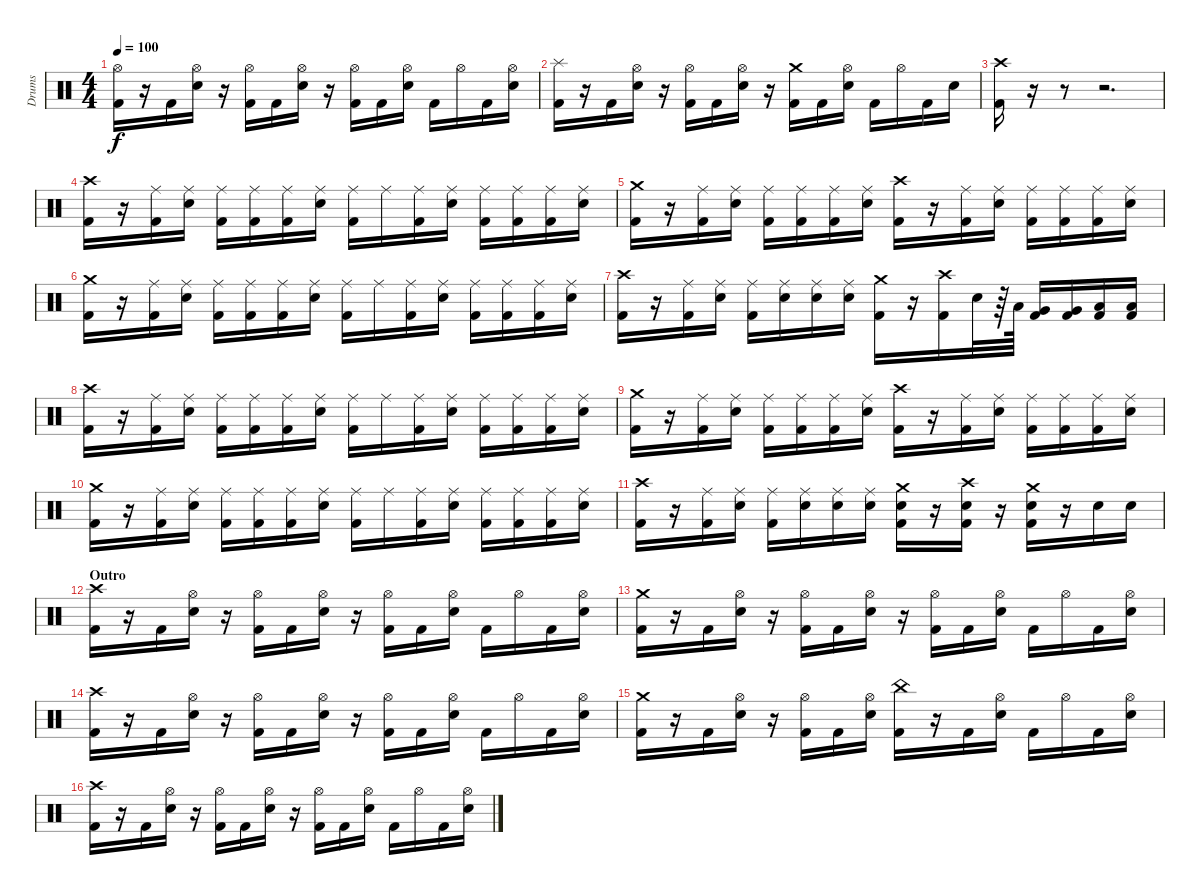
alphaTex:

\track ("Drums" "Drums") {instrument percussion}
\staff {score}
\articulation defaults
\ts (4 4)
\tempo 100
\clef neutral
\ks c
("Hi-Hat (open)" "Kick (hit) 2").16{dy f} r.16 "Kick (hit) 2".16 ("Hi-Hat (open)" "Snare (hit) 2").16 r.16 ("Hi-Hat (open)" "Kick (hit) 2").16 "Kick (hit) 2".16 ("Hi-Hat (open)" "Snare (hit) 2").16 r.16 ("Hi-Hat (open)" "Kick (hit) 2").16 "Kick (hit) 2".16 ("Hi-Hat (open)" "Snare (hit) 2").16 "Kick (hit) 2".16 "Hi-Hat (open)".16 "Kick (hit) 2".16 ("Hi-Hat (open)" "Snare (hit) 2").16 |
("Splash (hit)" "Kick (hit) 2").16 r.16 "Kick (hit) 2".16 ("Hi-Hat (open)" "Snare (hit) 2").16 r.16 ("Hi-Hat (open)" "Kick (hit) 2").16 "Kick (hit) 2".16 ("Hi-Hat (open)" "Snare (hit) 2").16 r.16 ("Crash medium (hit)" "Kick (hit) 2").16 "Kick (hit) 2".16 ("Hi-Hat (open)" "Snare (hit) 2").16 "Kick (hit) 2".16 "Hi-Hat (open)".16 "Kick (hit) 2".16 "Snare (hit) 2".16 |
("Crash high (hit)" "Kick (hit) 2").16 r.16 r.8 r.2{d} |
("Crash high (hit)" "Kick (hit) 2").16 r.16 ("Ride (middle)" "Kick (hit) 2").16 ("Ride (middle)" "Snare (hit) 2").16 ("Ride (middle)" "Kick (hit) 2").16 ("Ride (middle)" "Kick (hit) 2").16 ("Ride (middle)" "Kick (hit) 2").16 ("Ride (middle)" "Snare (hit) 2").16 ("Ride (middle)" "Kick (hit) 2").16 "Ride (middle)".16 ("Ride (middle)" "Kick (hit) 2").16 ("Ride (middle)" "Snare (hit) 2").16 ("Ride (middle)" "Kick (hit) 2").16 ("Ride (middle)" "Kick (hit) 2").16 ("Ride (middle)" "Kick (hit) 2").16 ("Ride (middle)" "Snare (hit) 2").16 |
("Crash medium (hit)" "Kick (hit) 2").16 r.16 ("Ride (middle)" "Kick (hit) 2").16 ("Ride (middle)" "Snare (hit) 2").16 ("Ride (middle)" "Kick (hit) 2").16 ("Ride (middle)" "Kick (hit) 2").16 ("Ride (middle)" "Kick (hit) 2").16 ("Ride (middle)" "Snare (hit) 2").16 ("Crash high (hit)" "Kick (hit) 2").16 r.16 ("Ride (middle)" "Kick (hit) 2").16 ("Ride (middle)" "Snare (hit) 2").16 ("Ride (middle)" "Kick (hit) 2").16 ("Ride (middle)" "Kick (hit) 2").16 ("Ride (middle)" "Kick (hit) 2").16 ("Ride (middle)" "Snare (hit) 2").16 |
("Crash medium (hit)" "Kick (hit) 2").16 r.16 ("Ride (middle)" "Kick (hit) 2").16 ("Ride (middle)" "Snare (hit) 2").16 ("Ride (middle)" "Kick (hit) 2").16 ("Ride (middle)" "Kick (hit) 2").16 ("Ride (middle)" "Kick (hit) 2").16 ("Ride (middle)" "Snare (hit) 2").16 ("Ride (middle)" "Kick (hit) 2").16 "Ride (middle)".16 ("Ride (middle)" "Kick (hit) 2").16 ("Ride (middle)" "Snare (hit) 2").16 ("Ride (middle)" "Kick (hit) 2").16 ("Ride (middle)" "Kick (hit) 2").16 ("Ride (middle)" "Kick (hit) 2").16 ("Ride (middle)" "Snare (hit) 2").16 |
("Crash high (hit)" "Kick (hit) 2").16 r.16 ("Ride (middle)" "Kick (hit) 2").16 ("Ride (middle)" "Snare (hit) 2").16 ("Ride (middle)" "Kick (hit) 2").16 ("Ride (middle)" "Snare (hit) 2").16 ("Ride (middle)" "Snare (hit) 2").16 ("Ride (middle)" "Snare (hit) 2").16 ("Crash medium (hit)" "Kick (hit) 2").16 r.16 ("Crash high (hit)" "Kick (hit) 2").16 "Snare (hit) 2".32 r.64 "Low Floor Tom (hit)".64 ("Very Low Tom (hit)" "Kick (hit) 2").16 ("Very Low Tom (hit)" "Kick (hit) 2").16 ("Low Floor Tom (hit)" "Kick (hit) 2").16 ("Low Floor Tom (hit)" "Kick (hit) 2").16 |
("Crash high (hit)" "Kick (hit) 2").16 r.16 ("Ride (middle)" "Kick (hit) 2").16 ("Ride (middle)" "Snare (hit) 2").16 ("Ride (middle)" "Kick (hit) 2").16 ("Ride (middle)" "Kick (hit) 2").16 ("Ride (middle)" "Kick (hit) 2").16 ("Ride (middle)" "Snare (hit) 2").16 ("Ride (middle)" "Kick (hit) 2").16 "Ride (middle)".16 ("Ride (middle)" "Kick (hit) 2").16 ("Ride (middle)" "Snare (hit) 2").16 ("Ride (middle)" "Kick (hit) 2").16 ("Ride (middle)" "Kick (hit) 2").16 ("Ride (middle)" "Kick (hit) 2").16 ("Ride (middle)" "Snare (hit) 2").16 |
("Crash medium (hit)" "Kick (hit) 2").16 r.16 ("Ride (middle)" "Kick (hit) 2").16 ("Ride (middle)" "Snare (hit) 2").16 ("Ride (middle)" "Kick (hit) 2").16 ("Ride (middle)" "Kick (hit) 2").16 ("Ride (middle)" "Kick (hit) 2").16 ("Ride (middle)" "Snare (hit) 2").16 ("Crash high (hit)" "Kick (hit) 2").16 r.16 ("Ride (middle)" "Kick (hit) 2").16 ("Ride (middle)" "Snare (hit) 2").16 ("Ride (middle)" "Kick (hit) 2").16 ("Ride (middle)" "Kick (hit) 2").16 ("Ride (middle)" "Kick (hit) 2").16 ("Ride (middle)" "Snare (hit) 2").16 |
("Crash medium (hit)" "Kick (hit) 2").16 r.16 ("Ride (middle)" "Kick (hit) 2").16 ("Ride (middle)" "Snare (hit) 2").16 ("Ride (middle)" "Kick (hit) 2").16 ("Ride (middle)" "Kick (hit) 2").16 ("Ride (middle)" "Kick (hit) 2").16 ("Ride (middle)" "Snare (hit) 2").16 ("Ride (middle)" "Kick (hit) 2").16 "Ride (middle)".16 ("Ride (middle)" "Kick (hit) 2").16 ("Ride (middle)" "Snare (hit) 2").16 ("Ride (middle)" "Kick (hit) 2").16 ("Ride (middle)" "Kick (hit) 2").16 ("Ride (middle)" "Kick (hit) 2").16 ("Ride (middle)" "Snare (hit) 2").16 |
("Crash high (hit)" "Kick (hit) 2").16 r.16 ("Ride (middle)" "Kick (hit) 2").16 ("Ride (middle)" "Snare (hit) 2").16 ("Ride (middle)" "Kick (hit) 2").16 ("Ride (middle)" "Snare (hit) 2").16 ("Ride (middle)" "Snare (hit) 2").16 ("Ride (middle)" "Snare (hit) 2").16 ("Crash medium (hit)" "Snare (hit) 2" "Kick (hit) 2").16 r.16 ("Crash high (hit)" "Snare (hit) 2" "Kick (hit) 2").16 r.16 ("Crash medium (hit)" "Snare (hit) 2" "Kick (hit) 2").16 r.16 "Snare (hit) 2".16 "Snare (hit) 2".16 |
\section ("" "Outro")
("Crash high (hit)" "Kick (hit) 2").16 r.16 "Kick (hit) 2".16 ("Hi-Hat (open)" "Snare (hit) 2").16 r.16 ("Hi-Hat (open)" "Kick (hit) 2").16 "Kick (hit) 2".16 ("Hi-Hat (open)" "Snare (hit) 2").16 r.16 ("Hi-Hat (open)" "Kick (hit) 2").16 "Kick (hit) 2".16 ("Hi-Hat (open)" "Snare (hit) 2").16 "Kick (hit) 2".16 "Hi-Hat (open)".16 "Kick (hit) 2".16 ("Hi-Hat (open)" "Snare (hit) 2").16 |
("Crash medium (hit)" "Kick (hit) 2").16 r.16 "Kick (hit) 2".16 ("Hi-Hat (open)" "Snare (hit) 2").16 r.16 ("Hi-Hat (open)" "Kick (hit) 2").16 "Kick (hit) 2".16 ("Hi-Hat (open)" "Snare (hit) 2").16 r.16 ("Hi-Hat (open)" "Kick (hit) 2").16 "Kick (hit) 2".16 ("Hi-Hat (open)" "Snare (hit) 2").16 "Kick (hit) 2".16 "Hi-Hat (open)".16 "Kick (hit) 2".16 ("Hi-Hat (open)" "Snare (hit) 2").16 |
("Crash high (hit)" "Kick (hit) 2").16 r.16 "Kick (hit) 2".16 ("Hi-Hat (open)" "Snare (hit) 2").16 r.16 ("Hi-Hat (open)" "Kick (hit) 2").16 "Kick (hit) 2".16 ("Hi-Hat (open)" "Snare (hit) 2").16 r.16 ("Hi-Hat (open)" "Kick (hit) 2").16 "Kick (hit) 2".16 ("Hi-Hat (open)" "Snare (hit) 2").16 "Kick (hit) 2".16 "Hi-Hat (open)".16 "Kick (hit) 2".16 ("Hi-Hat (open)" "Snare (hit) 2").16 |
("Crash medium (hit)" "Kick (hit) 2").16 r.16 "Kick (hit) 2".16 ("Hi-Hat (open)" "Snare (hit) 2").16 r.16 ("Hi-Hat (open)" "Kick (hit) 2").16 "Kick (hit) 2".16 ("Hi-Hat (open)" "Snare (hit) 2").16 ("China (hit)" "Kick (hit) 2").16 r.16 "Kick (hit) 2".16 ("Hi-Hat (open)" "Snare (hit) 2").16 "Kick (hit) 2".16 "Hi-Hat (open)".16 "Kick (hit) 2".16 ("Hi-Hat (open)" "Snare (hit) 2").16 |
("Crash high (hit)" "Kick (hit) 2").16 r.16 "Kick (hit) 2".16 ("Hi-Hat (open)" "Snare (hit) 2").16 r.16 ("Hi-Hat (open)" "Kick (hit) 2").16 "Kick (hit) 2".16 ("Hi-Hat (open)" "Snare (hit) 2").16 r.16 ("Hi-Hat (open)" "Kick (hit) 2").16 "Kick (hit) 2".16 ("Hi-Hat (open)" "Snare (hit) 2").16 "Kick (hit) 2".16 "Hi-Hat (open)".16 "Kick (hit) 2".16 ("Hi-Hat (open)" "Snare (hit) 2").16
